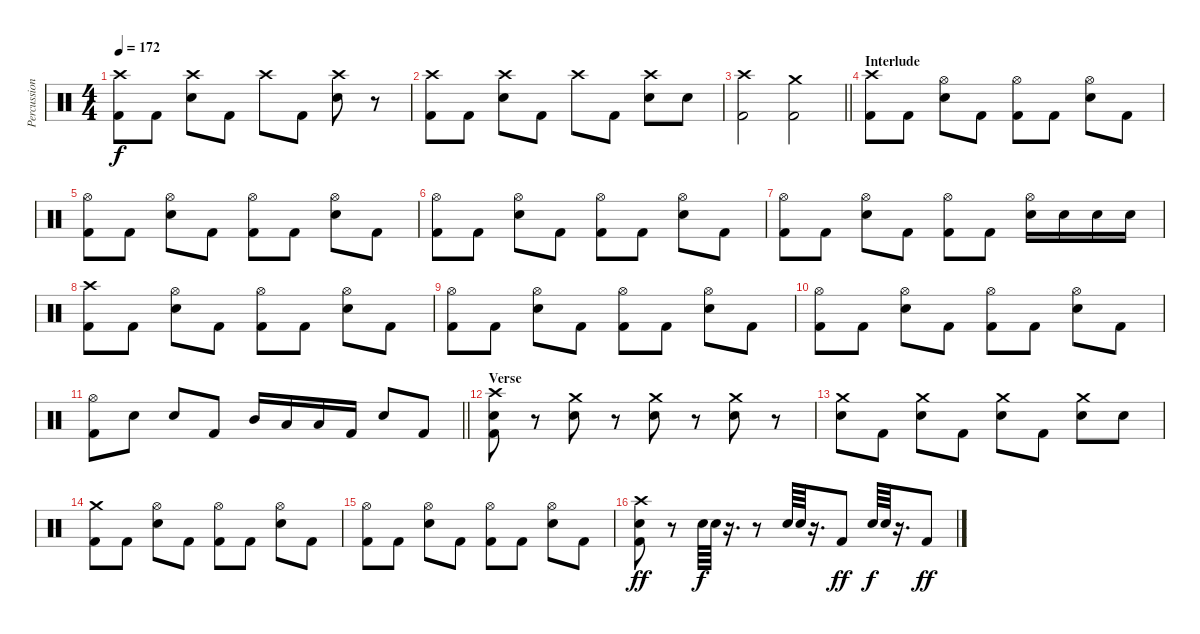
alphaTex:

\track ("Percussion" "Percussion") {instrument percussion}
\staff {score}
\articulation defaults
\ts (4 4)
\tempo 172
\clef neutral
\ks c
("Crash high (hit)" "Kick (hit) 2").8{dy f} "Kick (hit) 2".8 ("Crash high (hit)" "Snare (hit) 2").8 "Kick (hit) 2".8 "Crash high (hit)".8 "Kick (hit) 2".8 ("Crash high (hit)" "Snare (hit) 2").8 r.8 |
("Crash high (hit)" "Kick (hit) 2").8 "Kick (hit) 2".8 ("Crash high (hit)" "Snare (hit) 2").8 "Kick (hit) 2".8 "Crash high (hit)".8 "Kick (hit) 2".8 ("Crash high (hit)" "Snare (hit) 2").8 "Snare (hit) 2".8 |
\barLineRight lightlight
("Crash high (hit)" "Kick (hit) 2").2 ("Crash medium (hit)" "Kick (hit) 2").2 |
\section ("" "Interlude")
("Crash high (hit)" "Kick (hit) 2").8 "Kick (hit) 2".8 ("Hi-Hat (open)" "Snare (hit) 2").8 "Kick (hit) 2".8 ("Hi-Hat (open)" "Kick (hit) 2").8 "Kick (hit) 2".8 ("Hi-Hat (open)" "Snare (hit) 2").8 "Kick (hit) 2".8 |
("Hi-Hat (open)" "Kick (hit) 2").8 "Kick (hit) 2".8 ("Hi-Hat (open)" "Snare (hit) 2").8 "Kick (hit) 2".8 ("Hi-Hat (open)" "Kick (hit) 2").8 "Kick (hit) 2".8 ("Hi-Hat (open)" "Snare (hit) 2").8 "Kick (hit) 2".8 |
("Hi-Hat (open)" "Kick (hit) 2").8 "Kick (hit) 2".8 ("Hi-Hat (open)" "Snare (hit) 2").8 "Kick (hit) 2".8 ("Hi-Hat (open)" "Kick (hit) 2").8 "Kick (hit) 2".8 ("Hi-Hat (open)" "Snare (hit) 2").8 "Kick (hit) 2".8 |
("Hi-Hat (open)" "Kick (hit) 2").8 "Kick (hit) 2".8 ("Hi-Hat (open)" "Snare (hit) 2").8 "Kick (hit) 2".8 ("Hi-Hat (open)" "Kick (hit) 2").8 "Kick (hit) 2".8 ("Hi-Hat (open)" "Snare (hit) 2").16 "Snare (hit) 2".16 "Snare (hit) 2".16 "Snare (hit) 2".16 |
("Crash high (hit)" "Kick (hit) 2").8 "Kick (hit) 2".8 ("Hi-Hat (open)" "Snare (hit) 2").8 "Kick (hit) 2".8 ("Hi-Hat (open)" "Kick (hit) 2").8 "Kick (hit) 2".8 ("Hi-Hat (open)" "Snare (hit) 2").8 "Kick (hit) 2".8 |
("Hi-Hat (open)" "Kick (hit) 2").8 "Kick (hit) 2".8 ("Hi-Hat (open)" "Snare (hit) 2").8 "Kick (hit) 2".8 ("Hi-Hat (open)" "Kick (hit) 2").8 "Kick (hit) 2".8 ("Hi-Hat (open)" "Snare (hit) 2").8 "Kick (hit) 2".8 |
("Hi-Hat (open)" "Kick (hit) 2").8 "Kick (hit) 2".8 ("Hi-Hat (open)" "Snare (hit) 2").8 "Kick (hit) 2".8 ("Hi-Hat (open)" "Kick (hit) 2").8 "Kick (hit) 2".8 ("Hi-Hat (open)" "Snare (hit) 2").8 "Kick (hit) 2".8 |
\barLineRight lightlight
("Hi-Hat (open)" "Kick (hit) 2").8 "Snare (hit) 2".8 "Snare (hit) 2".8 "Kick (hit) 2".8 "Mid Tom (hit)".16 "Low Tom (hit)".16 "Low Floor Tom (hit)".16 "Kick (hit) 2".16 "Snare (hit) 2".8 "Kick (hit) 2".8 |
\section ("" "Verse")
("Crash high (hit)" "Snare (hit) 2" "Kick (hit) 2").8 r.8 ("Crash medium (hit)" "Snare (hit) 2").8 r.8 ("Crash medium (hit)" "Snare (hit) 2").8 r.8 ("Crash medium (hit)" "Snare (hit) 2").8 r.8 |
("Crash medium (hit)" "Snare (hit) 2").8 "Kick (hit) 2".8 ("Crash medium (hit)" "Snare (hit) 2").8 "Kick (hit) 2".8 ("Crash medium (hit)" "Snare (hit) 2").8 "Kick (hit) 2".8 ("Crash medium (hit)" "Snare (hit) 2").8 "Snare (hit) 2".8 |
("Crash medium (hit)" "Kick (hit) 2").8 "Kick (hit) 2".8 ("Hi-Hat (open)" "Snare (hit) 2").8 "Kick (hit) 2".8 ("Hi-Hat (open)" "Kick (hit) 2").8 "Kick (hit) 2".8 ("Hi-Hat (open)" "Snare (hit) 2").8 "Kick (hit) 2".8 |
("Hi-Hat (open)" "Kick (hit) 2").8 "Kick (hit) 2".8 ("Hi-Hat (open)" "Snare (hit) 2").8 "Kick (hit) 2".8 ("Hi-Hat (open)" "Kick (hit) 2").8 "Kick (hit) 2".8 ("Hi-Hat (open)" "Snare (hit) 2").8 "Kick (hit) 2".8 |
("Crash high (hit)" "Snare (hit) 2" "Kick (hit) 2").8{dy ff} r.8 "Snare (hit) 2".64{dy f} "Snare (hit) 2".64 r.16{d} r.8 "Snare (hit) 2".64 "Snare (hit) 2".64 r.16{d} "Kick (hit) 2".8{dy ff} "Snare (hit) 2".64{dy f} "Snare (hit) 2".64 r.16{d} "Kick (hit) 2".8{dy ff}
